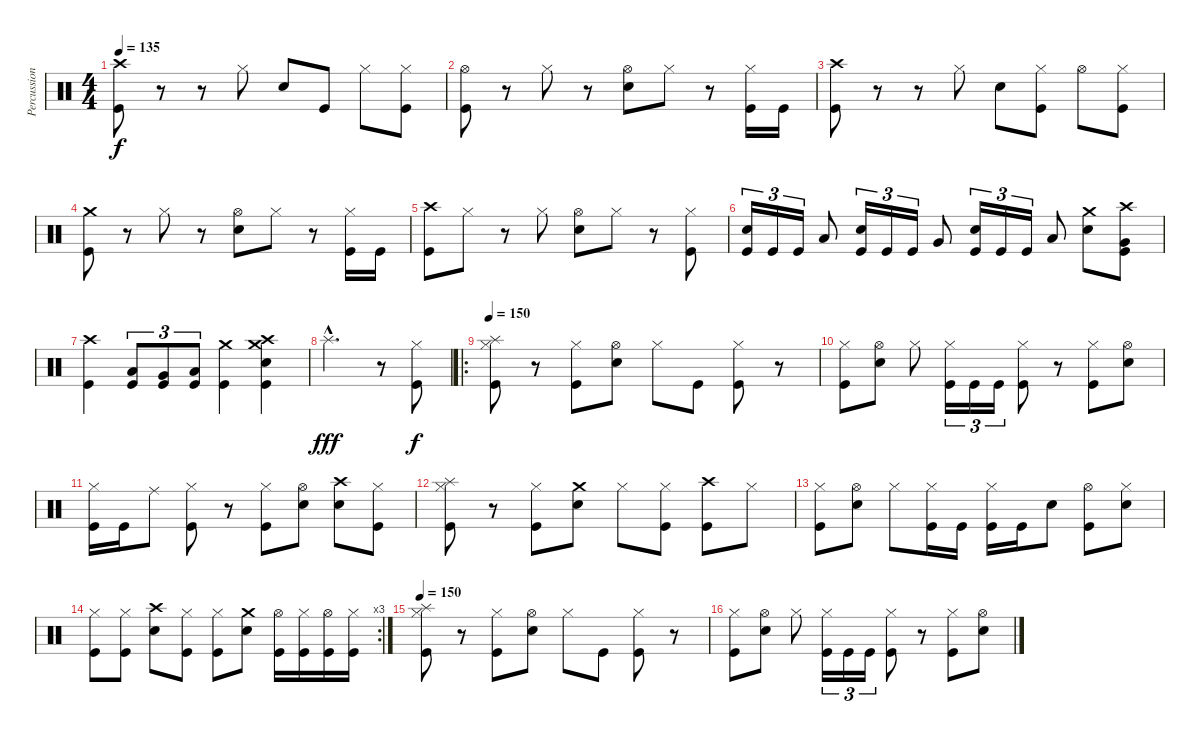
\track ("Percussion" "Percussion") {instrument percussion}
\staff {score}
\articulation defaults
\ts (4 4)
\tempo 135
\clef neutral
\ks c
("Crash high (hit)" "Kick (hit)").8{dy f} r.8 r.8 "Hi-Hat (closed)".8 "Electric Snare (hit)".8 "Kick (hit)".8 "Hi-Hat (closed)".8 ("Hi-Hat (closed)" "Kick (hit)").8 |
("Hi-Hat (open)" "Kick (hit)").8 r.8 "Hi-Hat (closed)".8 r.8 ("Hi-Hat (open)" "Electric Snare (hit)").8 "Hi-Hat (closed)".8 r.8 ("Hi-Hat (closed)" "Kick (hit)").16 "Kick (hit)".16 |
("Crash high (hit)" "Kick (hit)").8 r.8 r.8 "Hi-Hat (closed)".8 "Electric Snare (hit)".8 ("Hi-Hat (closed)" "Kick (hit)").8 "Hi-Hat (open)".8 ("Hi-Hat (closed)" "Kick (hit)").8 |
("Crash medium (hit)" "Kick (hit)").8 r.8 "Hi-Hat (closed)".8 r.8 ("Hi-Hat (open)" "Electric Snare (hit)").8 "Hi-Hat (closed)".8 r.8 ("Hi-Hat (closed)" "Kick (hit)").16 "Kick (hit)".16 |
("Crash high (hit)" "Kick (hit)").8 "Hi-Hat (closed)".8 r.8 "Hi-Hat (closed)".8 ("Hi-Hat (open)" "Electric Snare (hit)").8 "Hi-Hat (closed)".8 r.8 ("Hi-Hat (closed)" "Kick (hit)").8 |
("Electric Snare (hit)" "Kick (hit)").16{tu (3 2)} "Kick (hit)".16{tu (3 2)} "Kick (hit)".16{tu (3 2)} "Low Tom (hit)".8 ("Electric Snare (hit)" "Kick (hit)").16{tu (3 2)} "Kick (hit)".16{tu (3 2)} "Kick (hit)".16{tu (3 2)} "Very Low Tom (hit)".8 ("Electric Snare (hit)" "Kick (hit)").16{tu (3 2)} "Kick (hit)".16{tu (3 2)} "Kick (hit)".16{tu (3 2)} "Low Floor Tom (hit)".8 ("Crash medium (hit)" "Electric Snare (hit)").8 ("Crash high (hit)" "Very Low Tom (hit)" "Kick (hit)").8 |
("Crash high (hit)" "Kick (hit)").4 ("Low Tom (hit)" "Kick (hit)").8{tu (3 2)} ("Very Low Tom (hit)" "Kick (hit)").8{tu (3 2)} ("Low Floor Tom (hit)" "Kick (hit)").8{tu (3 2)} ("Crash medium (hit)" "Kick (hit)").4 ("Crash high (hit)" "Crash medium (hit)" "Electric Snare (hit)" "Kick (hit)").4 |
"Splash (hit)"{hac}.2{d dy fff} r.8 ("Hi-Hat (closed)" "Kick (hit)").8{dy f} |
\ro
\tempo 150
("Splash (hit)" "Hi-Hat (closed)" "Kick (hit)").8 r.8 ("Hi-Hat (closed)" "Kick (hit)").8 ("Hi-Hat (open)" "Electric Snare (hit)").8 "Hi-Hat (closed)".8 "Kick (hit)".8 ("Hi-Hat (closed)" "Kick (hit)").8 r.8 |
("Hi-Hat (closed)" "Kick (hit)").8 ("Hi-Hat (open)" "Electric Snare (hit)").8 "Hi-Hat (closed)".8 ("Hi-Hat (closed)" "Kick (hit)").16{tu (3 2)} "Kick (hit)".16{tu (3 2)} "Kick (hit)".16{tu (3 2)} ("Hi-Hat (closed)" "Kick (hit)").8 r.8 ("Hi-Hat (closed)" "Kick (hit)").8 ("Hi-Hat (open)" "Electric Snare (hit)").8 |
("Hi-Hat (closed)" "Kick (hit)").16 "Kick (hit)".16 "Ride (middle)".8 ("Hi-Hat (closed)" "Kick (hit)").8 r.8 ("Hi-Hat (closed)" "Kick (hit)").8 ("Hi-Hat (open)" "Electric Snare (hit)").8 ("Crash high (hit)" "Electric Snare (hit)").8 ("Hi-Hat (closed)" "Kick (hit)").8 |
("Splash (hit)" "Hi-Hat (closed)" "Kick (hit)").8 r.8 ("Hi-Hat (closed)" "Kick (hit)").8 ("Crash medium (hit)" "Electric Snare (hit)").8 "Hi-Hat (closed)".8 ("Hi-Hat (closed)" "Kick (hit)").8 ("Crash high (hit)" "Kick (hit)").8 "Hi-Hat (closed)".8 |
("Hi-Hat (closed)" "Kick (hit)").8 ("Hi-Hat (open)" "Electric Snare (hit)").8 "Hi-Hat (closed)".8 ("Hi-Hat (closed)" "Kick (hit)").16 "Kick (hit)".16 ("Hi-Hat (closed)" "Kick (hit)").16 "Kick (hit)".16 "Electric Snare (hit)".8 ("Hi-Hat (open)" "Kick (hit)").8 ("Hi-Hat (closed)" "Electric Snare (hit)").8 |
\rc 3
("Hi-Hat (closed)" "Kick (hit)").8 ("Hi-Hat (closed)" "Kick (hit)").8 ("Crash high (hit)" "Electric Snare (hit)").8 ("Hi-Hat (closed)" "Kick (hit)").8 ("Hi-Hat (closed)" "Kick (hit)").8 ("Crash medium (hit)" "Electric Snare (hit)").8 ("Hi-Hat (open)" "Kick (hit)").16 ("Hi-Hat (closed)" "Kick (hit)").16 ("Hi-Hat (open)" "Kick (hit)").16 ("Hi-Hat (closed)" "Kick (hit)").16 |
\tempo 150
("Splash (hit)" "Hi-Hat (closed)" "Kick (hit)").8 r.8 ("Hi-Hat (closed)" "Kick (hit)").8 ("Hi-Hat (open)" "Electric Snare (hit)").8 "Hi-Hat (closed)".8 "Kick (hit)".8 ("Hi-Hat (closed)" "Kick (hit)").8 r.8 |
("Hi-Hat (closed)" "Kick (hit)").8 ("Hi-Hat (open)" "Electric Snare (hit)").8 "Hi-Hat (closed)".8 ("Hi-Hat (closed)" "Kick (hit)").16{tu (3 2)} "Kick (hit)".16{tu (3 2)} "Kick (hit)".16{tu (3 2)} ("Hi-Hat (closed)" "Kick (hit)").8 r.8 ("Hi-Hat (closed)" "Kick (hit)").8 ("Hi-Hat (open)" "Electric Snare (hit)").8
